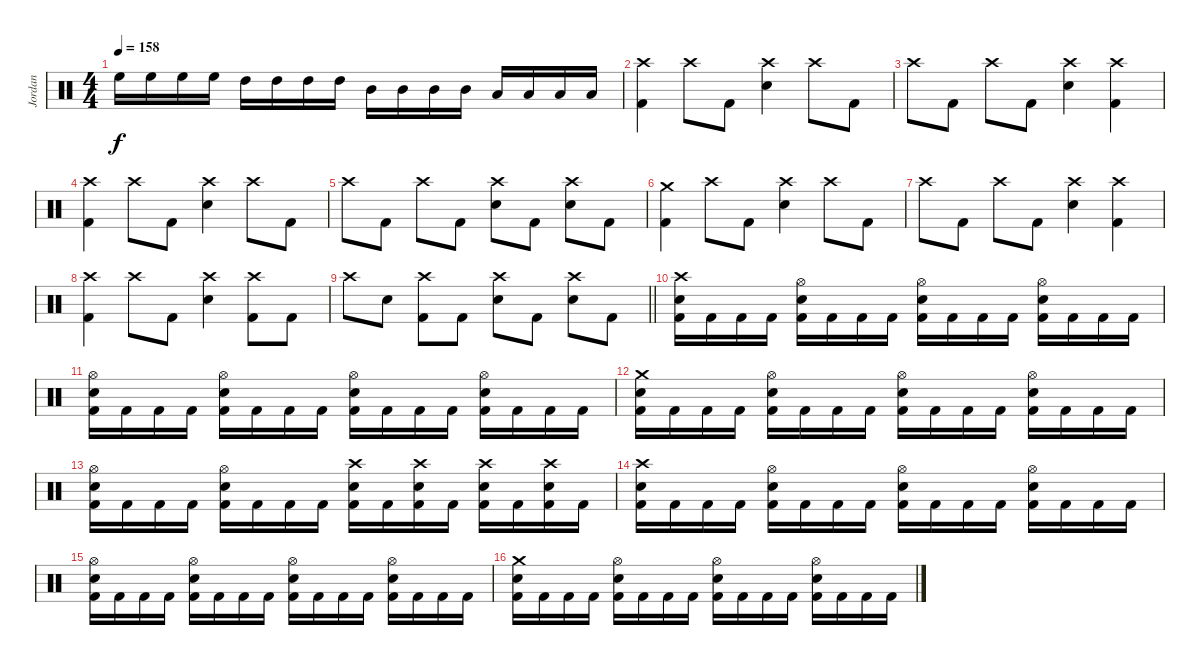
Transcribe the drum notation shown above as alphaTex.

\track ("Jordan" "Jordan") {instrument percussion}
\staff {score}
\articulation defaults
\ts (4 4)
\tempo 158
\clef neutral
\ks c "High Floor Tom (hit)".16{dy f} "High Floor Tom (hit)".16 "High Floor Tom (hit)".16 "High Floor Tom (hit)".16 "High Tom (hit)".16 "High Tom (hit)".16 "High Tom (hit)".16 "High Tom (hit)".16 "Mid Tom (hit)".16 "Mid Tom (hit)".16 "Mid Tom (hit)".16 "Mid Tom (hit)".16 "Low Tom (hit)".16 "Low Tom (hit)".16 "Low Tom (hit)".16 "Low Tom (hit)".16
|
("Crash high (hit)" "Kick (hit) 2").4 "Crash high (hit)".8 "Kick (hit) 2".8 ("Crash high (hit)" "Electric Snare (hit)").4 "Crash high (hit)".8 "Kick (hit) 2".8 |
"Crash high (hit)".8 "Kick (hit) 2".8 "Crash high (hit)".8 "Kick (hit) 2".8 ("Crash high (hit)" "Electric Snare (hit)").4 ("Crash high (hit)" "Kick (hit) 2").4 |
("Crash high (hit)" "Kick (hit) 2").4 "Crash high (hit)".8 "Kick (hit) 2".8 ("Crash high (hit)" "Electric Snare (hit)").4 "Crash high (hit)".8 "Kick (hit) 2".8 |
"Crash high (hit)".8 "Kick (hit) 2".8 "Crash high (hit)".8 "Kick (hit) 2".8 ("Crash high (hit)" "Electric Snare (hit)").8 "Kick (hit) 2".8 ("Crash high (hit)" "Electric Snare (hit)").8 "Kick (hit) 2".8 |
("Crash medium (hit)" "Kick (hit) 2").4 "Crash high (hit)".8 "Kick (hit) 2".8 ("Crash high (hit)" "Electric Snare (hit)").4 "Crash high (hit)".8 "Kick (hit) 2".8 |
"Crash high (hit)".8 "Kick (hit) 2".8 "Crash high (hit)".8 "Kick (hit) 2".8 ("Crash high (hit)" "Electric Snare (hit)").4 ("Crash high (hit)" "Kick (hit) 2").4 |
("Crash high (hit)" "Kick (hit) 2").4 "Crash high (hit)".8 "Kick (hit) 2".8 ("Crash high (hit)" "Electric Snare (hit)").4 ("Crash high (hit)" "Kick (hit) 2").8 "Kick (hit) 2".8 |
\barLineRight lightlight "Crash high (hit)".8 "Electric Snare (hit)".8
("Crash high (hit)" "Kick (hit) 2").8 "Kick (hit) 2".8 ("Crash high (hit)" "Electric Snare (hit)").8 "Kick (hit) 2".8 ("Crash high (hit)" "Electric Snare (hit)").8 "Kick (hit) 2".8 |
("Crash high (hit)" "Electric Snare (hit)" "Kick (hit) 2").16 "Kick (hit) 2".16 "Kick (hit) 2".16 "Kick (hit) 2".16 ("Hi-Hat (open)" "Electric Snare (hit)" "Kick (hit) 2").16 "Kick (hit) 2".16 "Kick (hit) 2".16 "Kick (hit) 2".16 ("Hi-Hat (open)" "Electric Snare (hit)" "Kick (hit) 2").16 "Kick (hit) 2".16 "Kick (hit) 2".16 "Kick (hit) 2".16 ("Hi-Hat (open)" "Electric Snare (hit)" "Kick (hit) 2").16 "Kick (hit) 2".16 "Kick (hit) 2".16 "Kick (hit) 2".16 |
("Hi-Hat (open)" "Electric Snare (hit)" "Kick (hit) 2").16 "Kick (hit) 2".16 "Kick (hit) 2".16 "Kick (hit) 2".16 ("Hi-Hat (open)" "Electric Snare (hit)" "Kick (hit) 2").16 "Kick (hit) 2".16 "Kick (hit) 2".16 "Kick (hit) 2".16 ("Hi-Hat (open)" "Electric Snare (hit)" "Kick (hit) 2").16 "Kick (hit) 2".16 "Kick (hit) 2".16 "Kick (hit) 2".16 ("Hi-Hat (open)" "Electric Snare (hit)" "Kick (hit) 2").16 "Kick (hit) 2".16 "Kick (hit) 2".16 "Kick (hit) 2".16 |
("Crash medium (hit)" "Electric Snare (hit)" "Kick (hit) 2").16 "Kick (hit) 2".16 "Kick (hit) 2".16 "Kick (hit) 2".16 ("Hi-Hat (open)" "Electric Snare (hit)" "Kick (hit) 2").16 "Kick (hit) 2".16 "Kick (hit) 2".16 "Kick (hit) 2".16 ("Hi-Hat (open)" "Electric Snare (hit)" "Kick (hit) 2").16 "Kick (hit) 2".16 "Kick (hit) 2".16 "Kick (hit) 2".16 ("Hi-Hat (open)" "Electric Snare (hit)" "Kick (hit) 2").16 "Kick (hit) 2".16 "Kick (hit) 2".16 "Kick (hit) 2".16 |
("Hi-Hat (open)" "Electric Snare (hit)" "Kick (hit) 2").16 "Kick (hit) 2".16 "Kick (hit) 2".16 "Kick (hit) 2".16 ("Hi-Hat (open)" "Electric Snare (hit)" "Kick (hit) 2").16 "Kick (hit) 2".16 "Kick (hit) 2".16 "Kick (hit) 2".16 ("Crash high (hit)" "Electric Snare (hit)" "Kick (hit) 2").16 "Kick (hit) 2".16 ("Crash high (hit)" "Electric Snare (hit)" "Kick (hit) 2").16 "Kick (hit) 2".16 ("Crash high (hit)" "Electric Snare (hit)" "Kick (hit) 2").16 "Kick (hit) 2".16 ("Crash high (hit)" "Electric Snare (hit)" "Kick (hit) 2").16 "Kick (hit) 2".16 |
("Crash high (hit)" "Electric Snare (hit)" "Kick (hit) 2").16 "Kick (hit) 2".16 "Kick (hit) 2".16 "Kick (hit) 2".16 ("Hi-Hat (open)" "Electric Snare (hit)" "Kick (hit) 2").16 "Kick (hit) 2".16 "Kick (hit) 2".16 "Kick (hit) 2".16 ("Hi-Hat (open)" "Electric Snare (hit)" "Kick (hit) 2").16 "Kick (hit) 2".16 "Kick (hit) 2".16 "Kick (hit) 2".16 ("Hi-Hat (open)" "Electric Snare (hit)" "Kick (hit) 2").16 "Kick (hit) 2".16 "Kick (hit) 2".16 "Kick (hit) 2".16 |
("Hi-Hat (open)" "Electric Snare (hit)" "Kick (hit) 2").16 "Kick (hit) 2".16 "Kick (hit) 2".16 "Kick (hit) 2".16 ("Hi-Hat (open)" "Electric Snare (hit)" "Kick (hit) 2").16 "Kick (hit) 2".16 "Kick (hit) 2".16 "Kick (hit) 2".16 ("Hi-Hat (open)" "Electric Snare (hit)" "Kick (hit) 2").16 "Kick (hit) 2".16 "Kick (hit) 2".16 "Kick (hit) 2".16 ("Hi-Hat (open)" "Electric Snare (hit)" "Kick (hit) 2").16 "Kick (hit) 2".16 "Kick (hit) 2".16 "Kick (hit) 2".16 |
("Crash medium (hit)" "Electric Snare (hit)" "Kick (hit) 2").16 "Kick (hit) 2".16 "Kick (hit) 2".16 "Kick (hit) 2".16 ("Hi-Hat (open)" "Electric Snare (hit)" "Kick (hit) 2").16 "Kick (hit) 2".16 "Kick (hit) 2".16 "Kick (hit) 2".16 ("Hi-Hat (open)" "Electric Snare (hit)" "Kick (hit) 2").16 "Kick (hit) 2".16 "Kick (hit) 2".16 "Kick (hit) 2".16 ("Hi-Hat (open)" "Electric Snare (hit)" "Kick (hit) 2").16 "Kick (hit) 2".16 "Kick (hit) 2".16 "Kick (hit) 2".16
